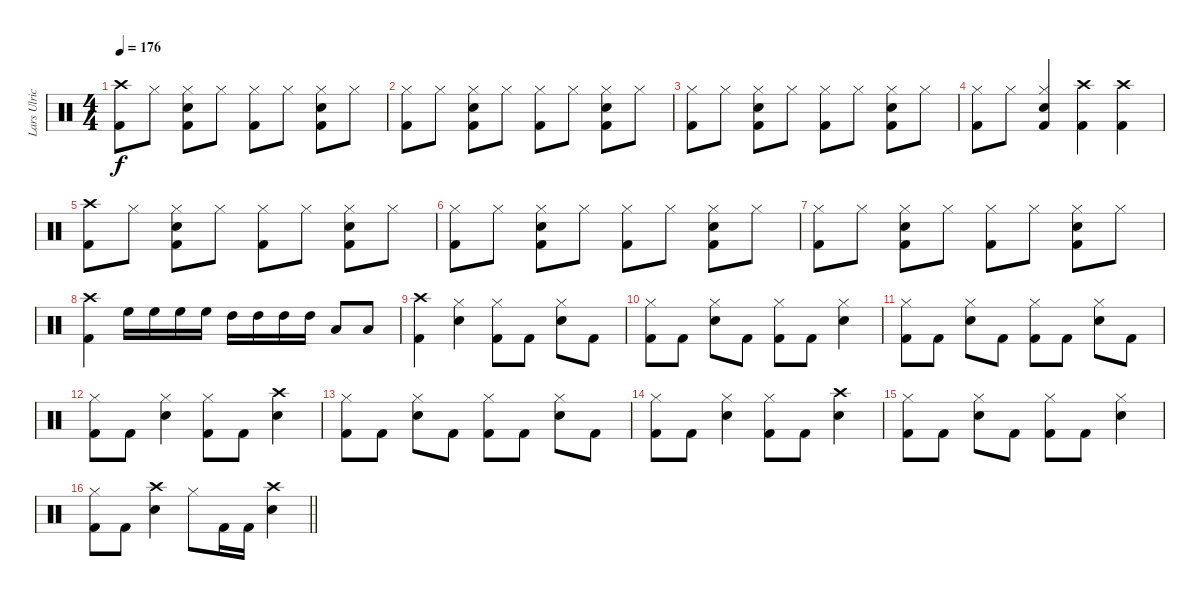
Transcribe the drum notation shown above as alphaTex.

\track ("Lars Ulrich" "Lars Ulric") {instrument percussion}
\staff {score}
\articulation defaults
\ts (4 4)
\tempo 176
\clef neutral
\ks c
("Crash high (hit)" "Kick (hit) 2").8{dy f} "Hi-Hat (closed)".8 ("Hi-Hat (closed)" "Snare (hit) 2" "Kick (hit) 2").8 "Hi-Hat (closed)".8 ("Hi-Hat (closed)" "Kick (hit) 2").8 "Hi-Hat (closed)".8 ("Hi-Hat (closed)" "Snare (hit) 2" "Kick (hit) 2").8 "Hi-Hat (closed)".8 |
("Hi-Hat (closed)" "Kick (hit) 2").8 "Hi-Hat (closed)".8 ("Hi-Hat (closed)" "Snare (hit) 2" "Kick (hit) 2").8 "Hi-Hat (closed)".8 ("Hi-Hat (closed)" "Kick (hit) 2").8 "Hi-Hat (closed)".8 ("Hi-Hat (closed)" "Snare (hit) 2" "Kick (hit) 2").8 "Hi-Hat (closed)".8 |
("Hi-Hat (closed)" "Kick (hit) 2").8 "Hi-Hat (closed)".8 ("Hi-Hat (closed)" "Snare (hit) 2" "Kick (hit) 2").8 "Hi-Hat (closed)".8 ("Hi-Hat (closed)" "Kick (hit) 2").8 "Hi-Hat (closed)".8 ("Hi-Hat (closed)" "Snare (hit) 2" "Kick (hit) 2").8 "Hi-Hat (closed)".8 |
("Hi-Hat (closed)" "Kick (hit) 2").8 "Hi-Hat (closed)".8 ("Hi-Hat (closed)" "Snare (hit) 2" "Kick (hit) 2").4 ("Crash high (hit)" "Kick (hit) 2").4 ("Crash high (hit)" "Kick (hit) 2").4 |
("Crash high (hit)" "Kick (hit) 2").8 "Hi-Hat (closed)".8 ("Hi-Hat (closed)" "Snare (hit) 2" "Kick (hit) 2").8 "Hi-Hat (closed)".8 ("Hi-Hat (closed)" "Kick (hit) 2").8 "Hi-Hat (closed)".8 ("Hi-Hat (closed)" "Snare (hit) 2" "Kick (hit) 2").8 "Hi-Hat (closed)".8 |
("Hi-Hat (closed)" "Kick (hit) 2").8 "Hi-Hat (closed)".8 ("Hi-Hat (closed)" "Snare (hit) 2" "Kick (hit) 2").8 "Hi-Hat (closed)".8 ("Hi-Hat (closed)" "Kick (hit) 2").8 "Hi-Hat (closed)".8 ("Hi-Hat (closed)" "Snare (hit) 2" "Kick (hit) 2").8 "Hi-Hat (closed)".8 |
("Hi-Hat (closed)" "Kick (hit) 2").8 "Hi-Hat (closed)".8 ("Hi-Hat (closed)" "Snare (hit) 2" "Kick (hit) 2").8 "Hi-Hat (closed)".8 ("Hi-Hat (closed)" "Kick (hit) 2").8 "Hi-Hat (closed)".8 ("Hi-Hat (closed)" "Snare (hit) 2" "Kick (hit) 2").8 "Hi-Hat (closed)".8 |
("Crash high (hit)" "Kick (hit) 2").4 "High Floor Tom (hit)".16 "High Floor Tom (hit)".16 "High Floor Tom (hit)".16 "High Floor Tom (hit)".16 "High Tom (hit)".16 "High Tom (hit)".16 "High Tom (hit)".16 "High Tom (hit)".16 "Low Tom (hit)".8 "Low Tom (hit)".8 |
("Crash high (hit)" "Kick (hit) 2").4 ("Hi-Hat (closed)" "Snare (hit) 2").4 ("Hi-Hat (closed)" "Kick (hit) 2").8 "Kick (hit) 2".8 ("Hi-Hat (closed)" "Snare (hit) 2").8 "Kick (hit) 2".8 |
("Hi-Hat (closed)" "Kick (hit) 2").8 "Kick (hit) 2".8 ("Hi-Hat (closed)" "Snare (hit) 2").8 "Kick (hit) 2".8 ("Hi-Hat (closed)" "Kick (hit) 2").8 "Kick (hit) 2".8 ("Hi-Hat (closed)" "Snare (hit) 2").4 |
("Hi-Hat (closed)" "Kick (hit) 2").8 "Kick (hit) 2".8 ("Hi-Hat (closed)" "Snare (hit) 2").8 "Kick (hit) 2".8 ("Hi-Hat (closed)" "Kick (hit) 2").8 "Kick (hit) 2".8 ("Hi-Hat (closed)" "Snare (hit) 2").8 "Kick (hit) 2".8 |
("Hi-Hat (closed)" "Kick (hit) 2").8 "Kick (hit) 2".8 ("Hi-Hat (closed)" "Snare (hit) 2").4 ("Hi-Hat (closed)" "Kick (hit) 2").8 "Kick (hit) 2".8 ("Crash high (hit)" "Snare (hit) 2").4 |
("Hi-Hat (closed)" "Kick (hit) 2").8 "Kick (hit) 2".8 ("Hi-Hat (closed)" "Snare (hit) 2").8 "Kick (hit) 2".8 ("Hi-Hat (closed)" "Kick (hit) 2").8 "Kick (hit) 2".8 ("Hi-Hat (closed)" "Snare (hit) 2").8 "Kick (hit) 2".8 |
("Hi-Hat (closed)" "Kick (hit) 2").8 "Kick (hit) 2".8 ("Hi-Hat (closed)" "Snare (hit) 2").4 ("Hi-Hat (closed)" "Kick (hit) 2").8 "Kick (hit) 2".8 ("Crash high (hit)" "Snare (hit) 2").4 |
("Hi-Hat (closed)" "Kick (hit) 2").8 "Kick (hit) 2".8 ("Hi-Hat (closed)" "Snare (hit) 2").8 "Kick (hit) 2".8 ("Hi-Hat (closed)" "Kick (hit) 2").8 "Kick (hit) 2".8 ("Hi-Hat (closed)" "Snare (hit) 2").4 |
\barLineRight lightlight
("Hi-Hat (closed)" "Kick (hit) 2").8 "Kick (hit) 2".8 ("Crash high (hit)" "Snare (hit) 2").4 "Hi-Hat (closed)".8 "Kick (hit) 2".16 "Kick (hit) 2".16 ("Crash high (hit)" "Snare (hit) 2").4
